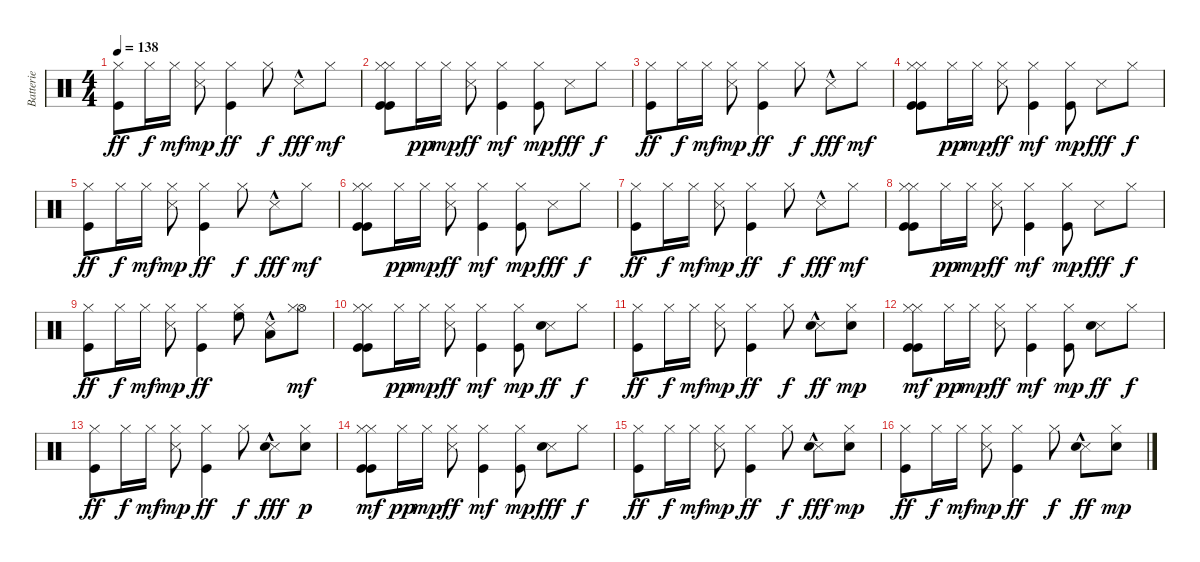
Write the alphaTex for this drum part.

\track ("Batterie" "Batterie") {instrument percussion}
\staff {score}
\articulation defaults
\ts (4 4)
\tempo 138
\clef neutral
\ks c
("Kick (hit)" "Hi-Hat (closed)").8{dy ff} "Hi-Hat (closed)".16{dy f} "Hi-Hat (closed)".16{dy mf} ("Snare (side stick) 3" "Hi-Hat (closed)").8{dy mp} ("Kick (hit)" "Hi-Hat (closed)").4{dy ff} "Hi-Hat (closed)".8{dy f} "Snare (side stick) 3"{hac}.8{dy fff} "Hi-Hat (closed)".8{dy mf} |
("Kick (hit)" "Kick (hit)" "Hi-Hat (closed)" "Hi-Hat (closed)").8 "Hi-Hat (closed)".16{dy pp} "Hi-Hat (closed)".16{dy mp} ("Snare (side stick) 3" "Hi-Hat (closed)").8{dy ff} ("Kick (hit)" "Hi-Hat (closed)").4{dy mf} ("Kick (hit)" "Hi-Hat (closed)").8{dy mp} "Snare (side stick) 3".8{dy fff} "Hi-Hat (closed)".8{dy f} |
("Kick (hit)" "Hi-Hat (closed)").8{dy ff} "Hi-Hat (closed)".16{dy f} "Hi-Hat (closed)".16{dy mf} ("Snare (side stick) 3" "Hi-Hat (closed)").8{dy mp} ("Kick (hit)" "Hi-Hat (closed)").4{dy ff} "Hi-Hat (closed)".8{dy f} "Snare (side stick) 3"{hac}.8{dy fff} "Hi-Hat (closed)".8{dy mf} |
("Kick (hit)" "Kick (hit)" "Hi-Hat (closed)" "Hi-Hat (closed)").8 "Hi-Hat (closed)".16{dy pp} "Hi-Hat (closed)".16{dy mp} ("Snare (side stick) 3" "Hi-Hat (closed)").8{dy ff} ("Kick (hit)" "Hi-Hat (closed)").4{dy mf} ("Kick (hit)" "Hi-Hat (closed)").8{dy mp} "Snare (side stick) 3".8{dy fff} "Hi-Hat (closed)".8{dy f} |
("Kick (hit)" "Hi-Hat (closed)").8{dy ff} "Hi-Hat (closed)".16{dy f} "Hi-Hat (closed)".16{dy mf} ("Snare (side stick) 3" "Hi-Hat (closed)").8{dy mp} ("Kick (hit)" "Hi-Hat (closed)").4{dy ff} "Hi-Hat (closed)".8{dy f} "Snare (side stick) 3"{hac}.8{dy fff} "Hi-Hat (closed)".8{dy mf} |
("Kick (hit)" "Kick (hit)" "Hi-Hat (closed)" "Hi-Hat (closed)").8 "Hi-Hat (closed)".16{dy pp} "Hi-Hat (closed)".16{dy mp} ("Snare (side stick) 3" "Hi-Hat (closed)").8{dy ff} ("Kick (hit)" "Hi-Hat (closed)").4{dy mf} ("Kick (hit)" "Hi-Hat (closed)").8{dy mp} "Snare (side stick) 3".8{dy fff} "Hi-Hat (closed)".8{dy f} |
("Kick (hit)" "Hi-Hat (closed)").8{dy ff} "Hi-Hat (closed)".16{dy f} "Hi-Hat (closed)".16{dy mf} ("Snare (side stick) 3" "Hi-Hat (closed)").8{dy mp} ("Kick (hit)" "Hi-Hat (closed)").4{dy ff} "Hi-Hat (closed)".8{dy f} "Snare (side stick) 3"{hac}.8{dy fff} "Hi-Hat (closed)".8{dy mf} |
("Kick (hit)" "Kick (hit)" "Hi-Hat (closed)" "Hi-Hat (closed)").8 "Hi-Hat (closed)".16{dy pp} "Hi-Hat (closed)".16{dy mp} ("Snare (side stick) 3" "Hi-Hat (closed)").8{dy ff} ("Kick (hit)" "Hi-Hat (closed)").4{dy mf} ("Kick (hit)" "Hi-Hat (closed)").8{dy mp} "Snare (side stick) 3".8{dy fff} "Hi-Hat (closed)".8{dy f} |
("Kick (hit)" "Hi-Hat (closed)").8{dy ff} "Hi-Hat (closed)".16{dy f} "Hi-Hat (closed)".16{dy mf} ("Snare (side stick) 3" "Hi-Hat (closed)").8{dy mp} ("Kick (hit)" "Hi-Hat (closed)").4{dy ff} ("Hi-Hat (closed)" "High Floor Tom (hit)").8 ("Snare (side stick) 3"{hac} "Low Tom (hit)").8 ("Hi-Hat (open)" "Hi-Hat (closed)").8{dy mf} |
("Kick (hit)" "Kick (hit)" "Hi-Hat (closed)" "Hi-Hat (closed)").8 "Hi-Hat (closed)".16{dy pp} "Hi-Hat (closed)".16{dy mp} ("Snare (side stick) 3" "Hi-Hat (closed)").8{dy ff} ("Kick (hit)" "Hi-Hat (closed)").4{dy mf} ("Kick (hit)" "Hi-Hat (closed)").8{dy mp} ("Snare (side stick) 3" "Snare (hit) 2").8{dy ff} "Hi-Hat (closed)".8{dy f} |
("Kick (hit)" "Hi-Hat (closed)").8{dy ff} "Hi-Hat (closed)".16{dy f} "Hi-Hat (closed)".16{dy mf} ("Snare (side stick) 3" "Hi-Hat (closed)").8{dy mp} ("Kick (hit)" "Hi-Hat (closed)").4{dy ff} "Hi-Hat (closed)".8{dy f} ("Snare (side stick) 3"{hac} "Snare (hit) 2").8{dy ff} ("Hi-Hat (closed)" "Snare (hit) 2").8{dy mp} |
("Kick (hit)" "Kick (hit)" "Hi-Hat (closed)" "Hi-Hat (closed)").8{dy mf} "Hi-Hat (closed)".16{dy pp} "Hi-Hat (closed)".16{dy mp} ("Snare (side stick) 3" "Hi-Hat (closed)").8{dy ff} ("Kick (hit)" "Hi-Hat (closed)").4{dy mf} ("Kick (hit)" "Hi-Hat (closed)").8{dy mp} ("Snare (side stick) 3" "Snare (hit) 2").8{dy ff} "Hi-Hat (closed)".8{dy f} |
("Kick (hit)" "Hi-Hat (closed)").8{dy ff} "Hi-Hat (closed)".16{dy f} "Hi-Hat (closed)".16{dy mf} ("Snare (side stick) 3" "Hi-Hat (closed)").8{dy mp} ("Kick (hit)" "Hi-Hat (closed)").4{dy ff} "Hi-Hat (closed)".8{dy f} ("Snare (side stick) 3"{hac} "Snare (hit) 2").8{dy fff} ("Hi-Hat (closed)" "Snare (hit) 2").8{dy p} |
("Kick (hit)" "Kick (hit)" "Hi-Hat (closed)" "Hi-Hat (closed)").8{dy mf} "Hi-Hat (closed)".16{dy pp} "Hi-Hat (closed)".16{dy mp} ("Snare (side stick) 3" "Hi-Hat (closed)").8{dy ff} ("Kick (hit)" "Hi-Hat (closed)").4{dy mf} ("Kick (hit)" "Hi-Hat (closed)").8{dy mp} ("Snare (side stick) 3" "Snare (hit) 2").8{dy fff} "Hi-Hat (closed)".8{dy f} |
("Kick (hit)" "Hi-Hat (closed)").8{dy ff} "Hi-Hat (closed)".16{dy f} "Hi-Hat (closed)".16{dy mf} ("Snare (side stick) 3" "Hi-Hat (closed)").8{dy mp} ("Kick (hit)" "Hi-Hat (closed)").4{dy ff} "Hi-Hat (closed)".8{dy f} ("Snare (side stick) 3"{hac} "Snare (hit) 2").8{dy fff} ("Hi-Hat (closed)" "Snare (hit) 2").8{dy mp} |
("Kick (hit)" "Hi-Hat (closed)").8{dy ff} "Hi-Hat (closed)".16{dy f} "Hi-Hat (closed)".16{dy mf} ("Snare (side stick) 3" "Hi-Hat (closed)").8{dy mp} ("Kick (hit)" "Hi-Hat (closed)").4{dy ff} "Hi-Hat (closed)".8{dy f} ("Snare (side stick) 3"{hac} "Snare (hit) 2").8{dy ff} ("Hi-Hat (closed)" "Snare (hit) 2").8{dy mp}
